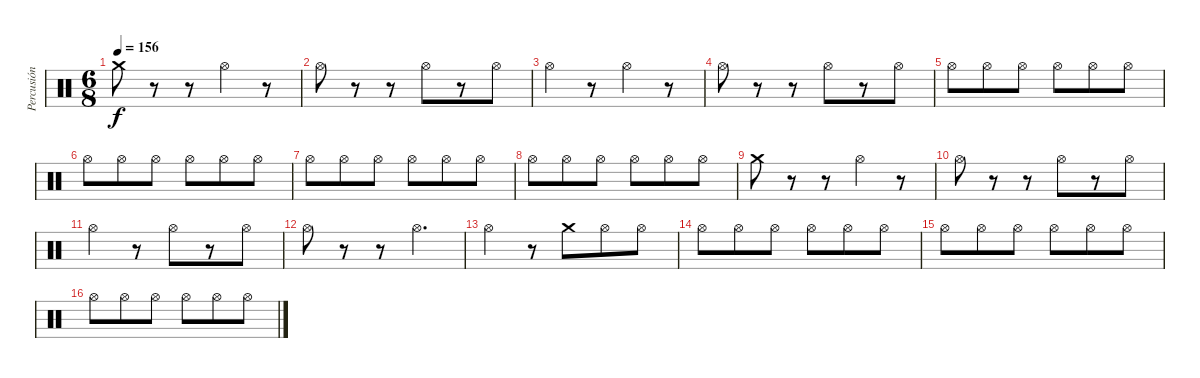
\track ("Percusión" "Percusión") {instrument percussion}
\staff {score}
\articulation defaults
\ts (6 8)
\tempo 156
\clef neutral
\ks c "Crash medium (hit)".8{dy f}
r.8 r.8 "Hi-Hat (open)".4 r.8 |
"Hi-Hat (open)".8 r.8 r.8 "Hi-Hat (open)".8 r.8 "Hi-Hat (open)".8 |
"Hi-Hat (open)".4 r.8 "Hi-Hat (open)".4 r.8 |
"Hi-Hat (open)".8 r.8 r.8 "Hi-Hat (open)".8 r.8 "Hi-Hat (open)".8 |
"Hi-Hat (open)".8 "Hi-Hat (open)".8 "Hi-Hat (open)".8 "Hi-Hat (open)".8 "Hi-Hat (open)".8 "Hi-Hat (open)".8 |
"Hi-Hat (open)".8 "Hi-Hat (open)".8 "Hi-Hat (open)".8 "Hi-Hat (open)".8 "Hi-Hat (open)".8 "Hi-Hat (open)".8 |
"Hi-Hat (open)".8 "Hi-Hat (open)".8 "Hi-Hat (open)".8 "Hi-Hat (open)".8 "Hi-Hat (open)".8 "Hi-Hat (open)".8 |
"Hi-Hat (open)".8 "Hi-Hat (open)".8 "Hi-Hat (open)".8 "Hi-Hat (open)".8 "Hi-Hat (open)".8 "Hi-Hat (open)".8 |
"Crash medium (hit)".8 r.8 r.8 "Hi-Hat (open)".4 r.8 |
"Hi-Hat (open)".8 r.8 r.8 "Hi-Hat (open)".8 r.8 "Hi-Hat (open)".8 |
"Hi-Hat (open)".4 r.8 "Hi-Hat (open)".8 r.8 "Hi-Hat (open)".8 |
"Hi-Hat (open)".8 r.8 r.8 "Hi-Hat (open)".4{d} |
"Hi-Hat (open)".4 r.8 "Crash medium (hit)".8 "Hi-Hat (open)".8 "Hi-Hat (open)".8 |
"Hi-Hat (open)".8 "Hi-Hat (open)".8 "Hi-Hat (open)".8 "Hi-Hat (open)".8 "Hi-Hat (open)".8 "Hi-Hat (open)".8 |
"Hi-Hat (open)".8 "Hi-Hat (open)".8 "Hi-Hat (open)".8 "Hi-Hat (open)".8 "Hi-Hat (open)".8 "Hi-Hat (open)".8 |
"Hi-Hat (open)".8 "Hi-Hat (open)".8 "Hi-Hat (open)".8 "Hi-Hat (open)".8 "Hi-Hat (open)".8 "Hi-Hat (open)".8
